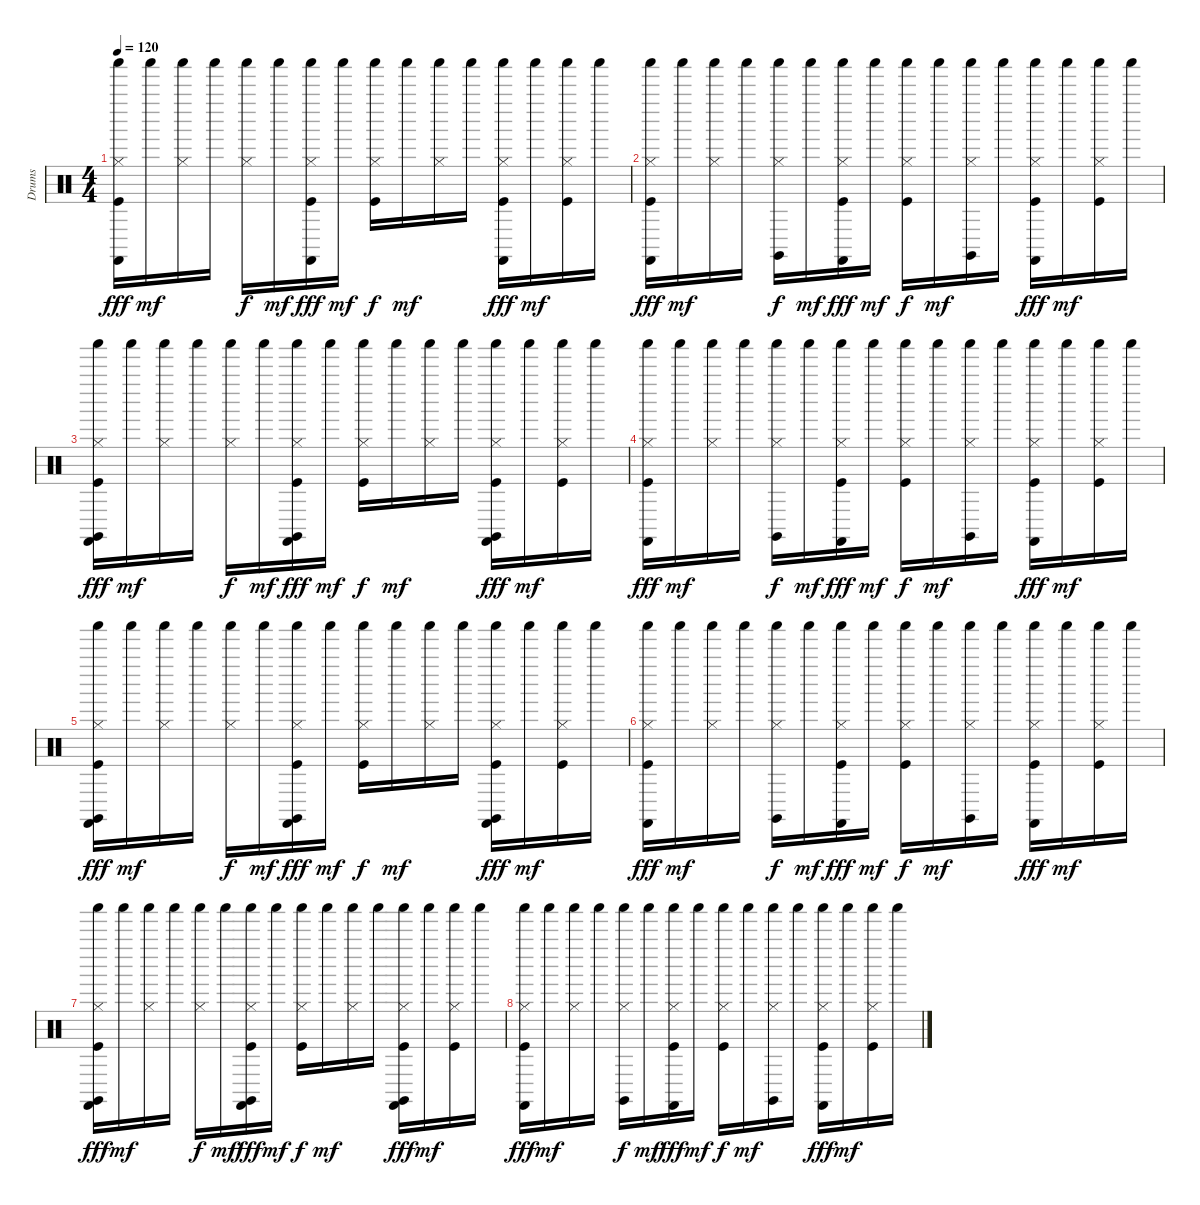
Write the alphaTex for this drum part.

\track ("Drums" "Drums") {instrument percussion}
\staff {score}
\articulation defaults
\ts (4 4)
\tempo 120
\clef neutral
\ks c
("Shaker (hit)" "Hi-Hat (closed)" "Castanets (hit)" "Kick (hit)").16{dy fff} "Shaker (hit)".16{dy mf} ("Shaker (hit)" "Hi-Hat (closed)").16 "Shaker (hit)".16 ("Shaker (hit)" "Hi-Hat (closed)").16{dy f} "Shaker (hit)".16{dy mf} ("Shaker (hit)" "Hi-Hat (closed)" "Castanets (hit)" "Kick (hit)").16{dy fff} "Shaker (hit)".16{dy mf} ("Shaker (hit)" "Hi-Hat (closed)" "Kick (hit)").16{dy f} "Shaker (hit)".16{dy mf} ("Shaker (hit)" "Hi-Hat (closed)").16 "Shaker (hit)".16 ("Shaker (hit)" "Hi-Hat (closed)" "Castanets (hit)" "Kick (hit)").16{dy fff} "Shaker (hit)".16{dy mf} ("Shaker (hit)" "Hi-Hat (closed)" "Kick (hit)").16 "Shaker (hit)".16 |
("Shaker (hit)" "Hi-Hat (closed)" "Castanets (hit)" "Kick (hit)").16{dy fff} "Shaker (hit)".16{dy mf} ("Shaker (hit)" "Hi-Hat (closed)").16 "Shaker (hit)".16 ("Shaker (hit)" "Hi-Hat (closed)" "Claves (hit)").16{dy f} "Shaker (hit)".16{dy mf} ("Shaker (hit)" "Hi-Hat (closed)" "Castanets (hit)" "Kick (hit)").16{dy fff} "Shaker (hit)".16{dy mf} ("Shaker (hit)" "Hi-Hat (closed)" "Kick (hit)").16{dy f} "Shaker (hit)".16{dy mf} ("Shaker (hit)" "Hi-Hat (closed)" "Claves (hit)").16 "Shaker (hit)".16 ("Shaker (hit)" "Hi-Hat (closed)" "Castanets (hit)" "Kick (hit)").16{dy fff} "Shaker (hit)".16{dy mf} ("Shaker (hit)" "Hi-Hat (closed)" "Kick (hit)").16 "Shaker (hit)".16 |
("Shaker (hit)" "Hi-Hat (closed)" "Castanets (hit)" "Claves (hit)" "Kick (hit)").16{dy fff} "Shaker (hit)".16{dy mf} ("Shaker (hit)" "Hi-Hat (closed)").16 "Shaker (hit)".16 ("Shaker (hit)" "Hi-Hat (closed)").16{dy f} "Shaker (hit)".16{dy mf} ("Shaker (hit)" "Hi-Hat (closed)" "Castanets (hit)" "Claves (hit)" "Kick (hit)").16{dy fff} "Shaker (hit)".16{dy mf} ("Shaker (hit)" "Hi-Hat (closed)" "Kick (hit)").16{dy f} "Shaker (hit)".16{dy mf} ("Shaker (hit)" "Hi-Hat (closed)").16 "Shaker (hit)".16 ("Shaker (hit)" "Hi-Hat (closed)" "Castanets (hit)" "Claves (hit)" "Kick (hit)").16{dy fff} "Shaker (hit)".16{dy mf} ("Shaker (hit)" "Hi-Hat (closed)" "Kick (hit)").16 "Shaker (hit)".16 |
("Shaker (hit)" "Hi-Hat (closed)" "Castanets (hit)" "Kick (hit)").16{dy fff} "Shaker (hit)".16{dy mf} ("Shaker (hit)" "Hi-Hat (closed)").16 "Shaker (hit)".16 ("Shaker (hit)" "Hi-Hat (closed)" "Claves (hit)").16{dy f} "Shaker (hit)".16{dy mf} ("Shaker (hit)" "Hi-Hat (closed)" "Castanets (hit)" "Kick (hit)").16{dy fff} "Shaker (hit)".16{dy mf} ("Shaker (hit)" "Hi-Hat (closed)" "Kick (hit)").16{dy f} "Shaker (hit)".16{dy mf} ("Shaker (hit)" "Hi-Hat (closed)" "Claves (hit)").16 "Shaker (hit)".16 ("Shaker (hit)" "Hi-Hat (closed)" "Castanets (hit)" "Kick (hit)").16{dy fff} "Shaker (hit)".16{dy mf} ("Shaker (hit)" "Hi-Hat (closed)" "Kick (hit)").16 "Shaker (hit)".16 |
("Shaker (hit)" "Hi-Hat (closed)" "Castanets (hit)" "Claves (hit)" "Kick (hit)").16{dy fff} "Shaker (hit)".16{dy mf} ("Shaker (hit)" "Hi-Hat (closed)").16 "Shaker (hit)".16 ("Shaker (hit)" "Hi-Hat (closed)").16{dy f} "Shaker (hit)".16{dy mf} ("Shaker (hit)" "Hi-Hat (closed)" "Castanets (hit)" "Claves (hit)" "Kick (hit)").16{dy fff} "Shaker (hit)".16{dy mf} ("Shaker (hit)" "Hi-Hat (closed)" "Kick (hit)").16{dy f} "Shaker (hit)".16{dy mf} ("Shaker (hit)" "Hi-Hat (closed)").16 "Shaker (hit)".16 ("Castanets (hit)" "Hi-Hat (closed)" "Shaker (hit)" "Claves (hit)" "Kick (hit)").16{dy fff} "Shaker (hit)".16{dy mf} ("Shaker (hit)" "Hi-Hat (closed)" "Kick (hit)").16 "Shaker (hit)".16 |
("Shaker (hit)" "Hi-Hat (closed)" "Castanets (hit)" "Kick (hit)").16{dy fff} "Shaker (hit)".16{dy mf} ("Shaker (hit)" "Hi-Hat (closed)").16 "Shaker (hit)".16 ("Shaker (hit)" "Hi-Hat (closed)" "Claves (hit)").16{dy f} "Shaker (hit)".16{dy mf} ("Shaker (hit)" "Hi-Hat (closed)" "Castanets (hit)" "Kick (hit)").16{dy fff} "Shaker (hit)".16{dy mf} ("Shaker (hit)" "Hi-Hat (closed)" "Kick (hit)").16{dy f} "Shaker (hit)".16{dy mf} ("Shaker (hit)" "Hi-Hat (closed)" "Claves (hit)").16 "Shaker (hit)".16 ("Shaker (hit)" "Hi-Hat (closed)" "Castanets (hit)" "Kick (hit)").16{dy fff} "Shaker (hit)".16{dy mf} ("Shaker (hit)" "Hi-Hat (closed)" "Kick (hit)").16 "Shaker (hit)".16 |
("Shaker (hit)" "Hi-Hat (closed)" "Castanets (hit)" "Claves (hit)" "Kick (hit)").16{dy fff} "Shaker (hit)".16{dy mf} ("Shaker (hit)" "Hi-Hat (closed)").16 "Shaker (hit)".16 ("Shaker (hit)" "Hi-Hat (closed)").16{dy f} "Shaker (hit)".16{dy mf} ("Shaker (hit)" "Hi-Hat (closed)" "Castanets (hit)" "Claves (hit)" "Kick (hit)").16{dy fff} "Shaker (hit)".16{dy mf} ("Shaker (hit)" "Hi-Hat (closed)" "Kick (hit)").16{dy f} "Shaker (hit)".16{dy mf} ("Shaker (hit)" "Hi-Hat (closed)").16 "Shaker (hit)".16 ("Shaker (hit)" "Hi-Hat (closed)" "Castanets (hit)" "Claves (hit)" "Kick (hit)").16{dy fff} "Shaker (hit)".16{dy mf} ("Shaker (hit)" "Hi-Hat (closed)" "Kick (hit)").16 "Shaker (hit)".16 |
("Shaker (hit)" "Hi-Hat (closed)" "Castanets (hit)" "Kick (hit)").16{dy fff} "Shaker (hit)".16{dy mf} ("Shaker (hit)" "Hi-Hat (closed)").16 "Shaker (hit)".16 ("Shaker (hit)" "Hi-Hat (closed)" "Claves (hit)").16{dy f} "Shaker (hit)".16{dy mf} ("Shaker (hit)" "Hi-Hat (closed)" "Castanets (hit)" "Kick (hit)").16{dy fff} "Shaker (hit)".16{dy mf} ("Shaker (hit)" "Hi-Hat (closed)" "Kick (hit)").16{dy f} "Shaker (hit)".16{dy mf} ("Shaker (hit)" "Hi-Hat (closed)" "Claves (hit)").16 "Shaker (hit)".16 ("Shaker (hit)" "Hi-Hat (closed)" "Castanets (hit)" "Kick (hit)").16{dy fff} "Shaker (hit)".16{dy mf} ("Shaker (hit)" "Hi-Hat (closed)" "Kick (hit)").16 "Shaker (hit)".16
